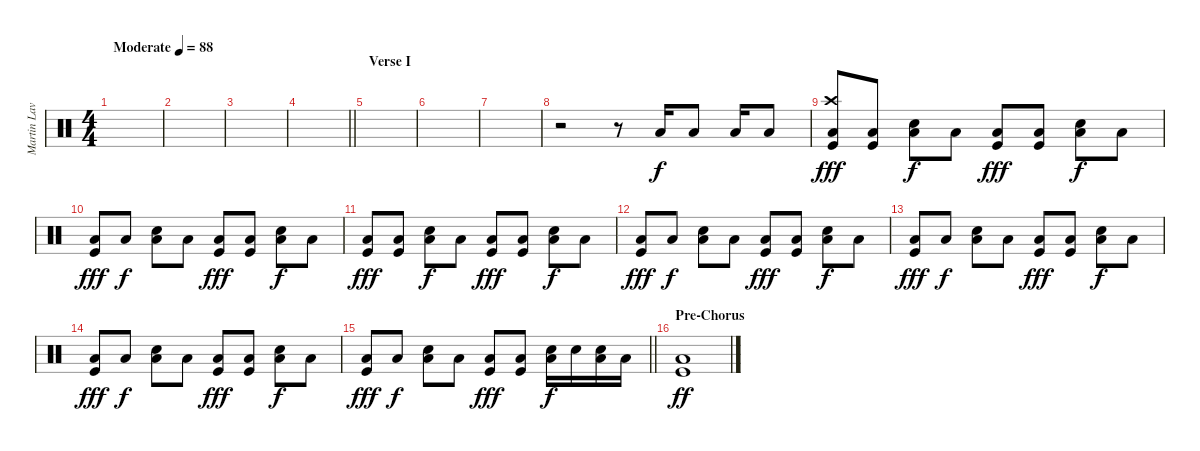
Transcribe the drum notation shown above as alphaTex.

\track ("Martin Lavalle" "Martin Lav") {instrument percussion}
\staff {score}
\articulation defaults
\ts (4 4)
\tempo (88 "Moderate")
\clef neutral
\ks c
|
|
|
\barLineRight lightlight
|
\section ("" "Verse I")
|
|
|
r.2 r.8 "Low Tom (hit)".16 "Low Tom (hit)".8 "Low Tom (hit)".16 "Low Tom (hit)".8 |
("Crash high (hit)" "Low Tom (hit)" "Kick (hit)").8{dy fff} ("Low Tom (hit)" "Kick (hit)").8 ("Low Tom (hit)" "Snare (hit) 2").8{dy f} "Low Tom (hit)".8 ("Low Tom (hit)" "Kick (hit)").8{dy fff} ("Low Tom (hit)" "Kick (hit)").8 ("Low Tom (hit)" "Snare (hit) 2").8{dy f} "Low Tom (hit)".8 |
("Low Tom (hit)" "Kick (hit)").8{dy fff} "Low Tom (hit)".8{dy f} ("Low Tom (hit)" "Snare (hit) 2").8 "Low Tom (hit)".8 ("Low Tom (hit)" "Kick (hit)").8{dy fff} ("Low Tom (hit)" "Kick (hit)").8 ("Low Tom (hit)" "Snare (hit) 2").8{dy f} "Low Tom (hit)".8 |
("Low Tom (hit)" "Kick (hit)").8{dy fff} ("Low Tom (hit)" "Kick (hit)").8 ("Low Tom (hit)" "Snare (hit) 2").8{dy f} "Low Tom (hit)".8 ("Low Tom (hit)" "Kick (hit)").8{dy fff} ("Low Tom (hit)" "Kick (hit)").8 ("Low Tom (hit)" "Snare (hit) 2").8{dy f} "Low Tom (hit)".8 |
("Low Tom (hit)" "Kick (hit)").8{dy fff} "Low Tom (hit)".8{dy f} ("Low Tom (hit)" "Snare (hit) 2").8 "Low Tom (hit)".8 ("Low Tom (hit)" "Kick (hit)").8{dy fff} ("Low Tom (hit)" "Kick (hit)").8 ("Low Tom (hit)" "Snare (hit) 2").8{dy f} "Low Tom (hit)".8 |
("Low Tom (hit)" "Kick (hit)").8{dy fff} "Low Tom (hit)".8{dy f} ("Low Tom (hit)" "Snare (hit) 2").8 "Low Tom (hit)".8 ("Low Tom (hit)" "Kick (hit)").8{dy fff} ("Low Tom (hit)" "Kick (hit)").8 ("Low Tom (hit)" "Snare (hit) 2").8{dy f} "Low Tom (hit)".8 |
("Low Tom (hit)" "Kick (hit)").8{dy fff} "Low Tom (hit)".8{dy f} ("Low Tom (hit)" "Snare (hit) 2").8 "Low Tom (hit)".8 ("Low Tom (hit)" "Kick (hit)").8{dy fff} ("Low Tom (hit)" "Kick (hit)").8 ("Low Tom (hit)" "Snare (hit) 2").8{dy f} "Low Tom (hit)".8 |
\barLineRight lightlight
("Low Tom (hit)" "Kick (hit)").8{dy fff} "Low Tom (hit)".8{dy f} ("Low Tom (hit)" "Snare (hit) 2").8 "Low Tom (hit)".8 ("Low Tom (hit)" "Kick (hit)").8{dy fff} ("Low Tom (hit)" "Kick (hit)").8 ("Low Tom (hit)" "Snare (hit) 2").16{dy f} "Snare (hit) 2".16 ("Low Tom (hit)" "Snare (hit) 2").16 "Low Tom (hit)".16 |
\section ("" "Pre-Chorus")
("Low Tom (hit)" "Kick (hit)").1{dy ff}
